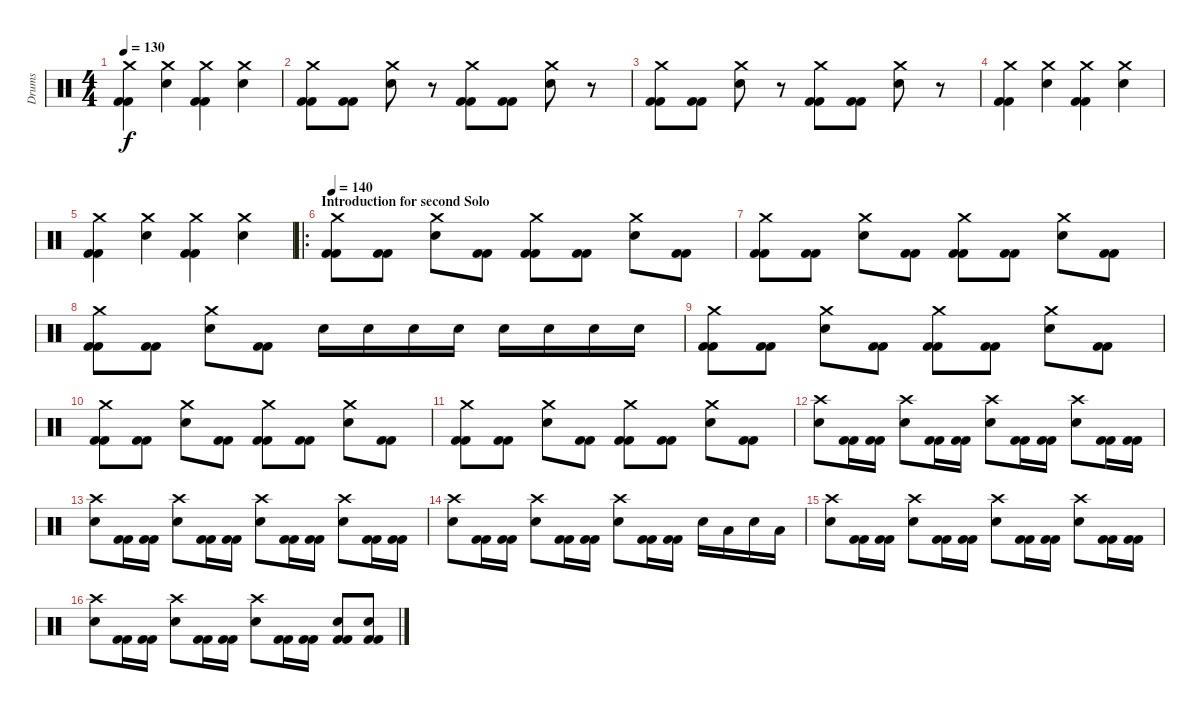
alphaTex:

\track ("Drums" "Drums") {instrument percussion}
\staff {score}
\articulation defaults
\ts (4 4)
\tempo 130
\clef neutral
\ks c
("Crash medium (hit)" "Kick (hit) 2" "Kick (hit) 2").4{dy f} ("Electric Snare (hit)" "Crash medium (hit)").4 ("Crash medium (hit)" "Kick (hit) 2" "Kick (hit) 2").4 ("Electric Snare (hit)" "Crash medium (hit)").4 |
("Kick (hit) 2" "Kick (hit) 2" "Crash medium (hit)").8 ("Kick (hit) 2" "Kick (hit) 2").8 ("Electric Snare (hit)" "Crash medium (hit)").8 r.8 ("Crash medium (hit)" "Kick (hit) 2" "Kick (hit) 2").8 ("Kick (hit) 2" "Kick (hit) 2").8 ("Electric Snare (hit)" "Crash medium (hit)").8 r.8 |
("Kick (hit) 2" "Kick (hit) 2" "Crash medium (hit)").8 ("Kick (hit) 2" "Kick (hit) 2").8 ("Electric Snare (hit)" "Crash medium (hit)").8 r.8 ("Crash medium (hit)" "Kick (hit) 2" "Kick (hit) 2").8 ("Kick (hit) 2" "Kick (hit) 2").8 ("Electric Snare (hit)" "Crash medium (hit)").8 r.8 |
("Crash medium (hit)" "Kick (hit) 2" "Kick (hit) 2").4 ("Electric Snare (hit)" "Crash medium (hit)").4 ("Crash medium (hit)" "Kick (hit) 2" "Kick (hit) 2").4 ("Electric Snare (hit)" "Crash medium (hit)").4 |
("Crash medium (hit)" "Kick (hit) 2" "Kick (hit) 2").4 ("Electric Snare (hit)" "Crash medium (hit)").4 ("Crash medium (hit)" "Kick (hit) 2" "Kick (hit) 2").4 ("Electric Snare (hit)" "Crash medium (hit)").4 |
\ro
\section ("" "Introduction for second Solo")
\tempo 140
("Crash medium (hit)" "Kick (hit) 2" "Kick (hit) 2").8 ("Kick (hit) 2" "Kick (hit) 2").8 ("Electric Snare (hit)" "Crash medium (hit)").8 ("Kick (hit) 2" "Kick (hit) 2").8 ("Kick (hit) 2" "Kick (hit) 2" "Crash medium (hit)").8 ("Kick (hit) 2" "Kick (hit) 2").8 ("Crash medium (hit)" "Electric Snare (hit)").8 ("Kick (hit) 2" "Kick (hit) 2").8 |
("Crash medium (hit)" "Kick (hit) 2" "Kick (hit) 2").8 ("Kick (hit) 2" "Kick (hit) 2").8 ("Electric Snare (hit)" "Crash medium (hit)").8 ("Kick (hit) 2" "Kick (hit) 2").8 ("Kick (hit) 2" "Kick (hit) 2" "Crash medium (hit)").8 ("Kick (hit) 2" "Kick (hit) 2").8 ("Crash medium (hit)" "Electric Snare (hit)").8 ("Kick (hit) 2" "Kick (hit) 2").8 |
("Crash medium (hit)" "Kick (hit) 2" "Kick (hit) 2").8 ("Kick (hit) 2" "Kick (hit) 2").8 ("Electric Snare (hit)" "Crash medium (hit)").8 ("Kick (hit) 2" "Kick (hit) 2").8 "Electric Snare (hit)".16 "Electric Snare (hit)".16 "Electric Snare (hit)".16 "Electric Snare (hit)".16 "Electric Snare (hit)".16 "Electric Snare (hit)".16 "Electric Snare (hit)".16 "Electric Snare (hit)".16 |
("Crash medium (hit)" "Kick (hit) 2" "Kick (hit) 2").8 ("Kick (hit) 2" "Kick (hit) 2").8 ("Electric Snare (hit)" "Crash medium (hit)").8 ("Kick (hit) 2" "Kick (hit) 2").8 ("Kick (hit) 2" "Kick (hit) 2" "Crash medium (hit)").8 ("Kick (hit) 2" "Kick (hit) 2").8 ("Crash medium (hit)" "Electric Snare (hit)").8 ("Kick (hit) 2" "Kick (hit) 2").8 |
("Crash medium (hit)" "Kick (hit) 2" "Kick (hit) 2").8 ("Kick (hit) 2" "Kick (hit) 2").8 ("Electric Snare (hit)" "Crash medium (hit)").8 ("Kick (hit) 2" "Kick (hit) 2").8 ("Kick (hit) 2" "Kick (hit) 2" "Crash medium (hit)").8 ("Kick (hit) 2" "Kick (hit) 2").8 ("Crash medium (hit)" "Electric Snare (hit)").8 ("Kick (hit) 2" "Kick (hit) 2").8 |
("Crash medium (hit)" "Kick (hit) 2" "Kick (hit) 2").8 ("Kick (hit) 2" "Kick (hit) 2").8 ("Electric Snare (hit)" "Crash medium (hit)").8 ("Kick (hit) 2" "Kick (hit) 2").8 ("Kick (hit) 2" "Kick (hit) 2" "Crash medium (hit)").8 ("Kick (hit) 2" "Kick (hit) 2").8 ("Crash medium (hit)" "Electric Snare (hit)").8 ("Kick (hit) 2" "Kick (hit) 2").8 |
("Crash high (hit)" "Electric Snare (hit)").8 ("Kick (hit) 2" "Kick (hit) 2").16 ("Kick (hit) 2" "Kick (hit) 2").16 ("Crash high (hit)" "Electric Snare (hit)").8 ("Kick (hit) 2" "Kick (hit) 2").16 ("Kick (hit) 2" "Kick (hit) 2").16 ("Crash high (hit)" "Electric Snare (hit)").8 ("Kick (hit) 2" "Kick (hit) 2").16 ("Kick (hit) 2" "Kick (hit) 2").16 ("Crash high (hit)" "Electric Snare (hit)").8 ("Kick (hit) 2" "Kick (hit) 2").16 ("Kick (hit) 2" "Kick (hit) 2").16 |
("Crash high (hit)" "Electric Snare (hit)").8 ("Kick (hit) 2" "Kick (hit) 2").16 ("Kick (hit) 2" "Kick (hit) 2").16 ("Crash high (hit)" "Electric Snare (hit)").8 ("Kick (hit) 2" "Kick (hit) 2").16 ("Kick (hit) 2" "Kick (hit) 2").16 ("Crash high (hit)" "Electric Snare (hit)").8 ("Kick (hit) 2" "Kick (hit) 2").16 ("Kick (hit) 2" "Kick (hit) 2").16 ("Crash high (hit)" "Electric Snare (hit)").8 ("Kick (hit) 2" "Kick (hit) 2").16 ("Kick (hit) 2" "Kick (hit) 2").16 |
("Crash high (hit)" "Electric Snare (hit)").8 ("Kick (hit) 2" "Kick (hit) 2").16 ("Kick (hit) 2" "Kick (hit) 2").16 ("Crash high (hit)" "Electric Snare (hit)").8 ("Kick (hit) 2" "Kick (hit) 2").16 ("Kick (hit) 2" "Kick (hit) 2").16 ("Crash high (hit)" "Electric Snare (hit)").8 ("Kick (hit) 2" "Kick (hit) 2").16 ("Kick (hit) 2" "Kick (hit) 2").16 "Electric Snare (hit)".16 "Low Tom (hit)".16 "Electric Snare (hit)".16 "Low Tom (hit)".16 |
("Crash high (hit)" "Electric Snare (hit)").8 ("Kick (hit) 2" "Kick (hit) 2").16 ("Kick (hit) 2" "Kick (hit) 2").16 ("Crash high (hit)" "Electric Snare (hit)").8 ("Kick (hit) 2" "Kick (hit) 2").16 ("Kick (hit) 2" "Kick (hit) 2").16 ("Crash high (hit)" "Electric Snare (hit)").8 ("Kick (hit) 2" "Kick (hit) 2").16 ("Kick (hit) 2" "Kick (hit) 2").16 ("Crash high (hit)" "Electric Snare (hit)").8 ("Kick (hit) 2" "Kick (hit) 2").16 ("Kick (hit) 2" "Kick (hit) 2").16 |
("Crash high (hit)" "Electric Snare (hit)").8 ("Kick (hit) 2" "Kick (hit) 2").16 ("Kick (hit) 2" "Kick (hit) 2").16 ("Crash high (hit)" "Electric Snare (hit)").8 ("Kick (hit) 2" "Kick (hit) 2").16 ("Kick (hit) 2" "Kick (hit) 2").16 ("Crash high (hit)" "Electric Snare (hit)").8 ("Kick (hit) 2" "Kick (hit) 2").16 ("Kick (hit) 2" "Kick (hit) 2").16 ("Electric Snare (hit)" "Kick (hit) 2" "Kick (hit) 2").8 ("Electric Snare (hit)" "Kick (hit) 2" "Kick (hit) 2").8
